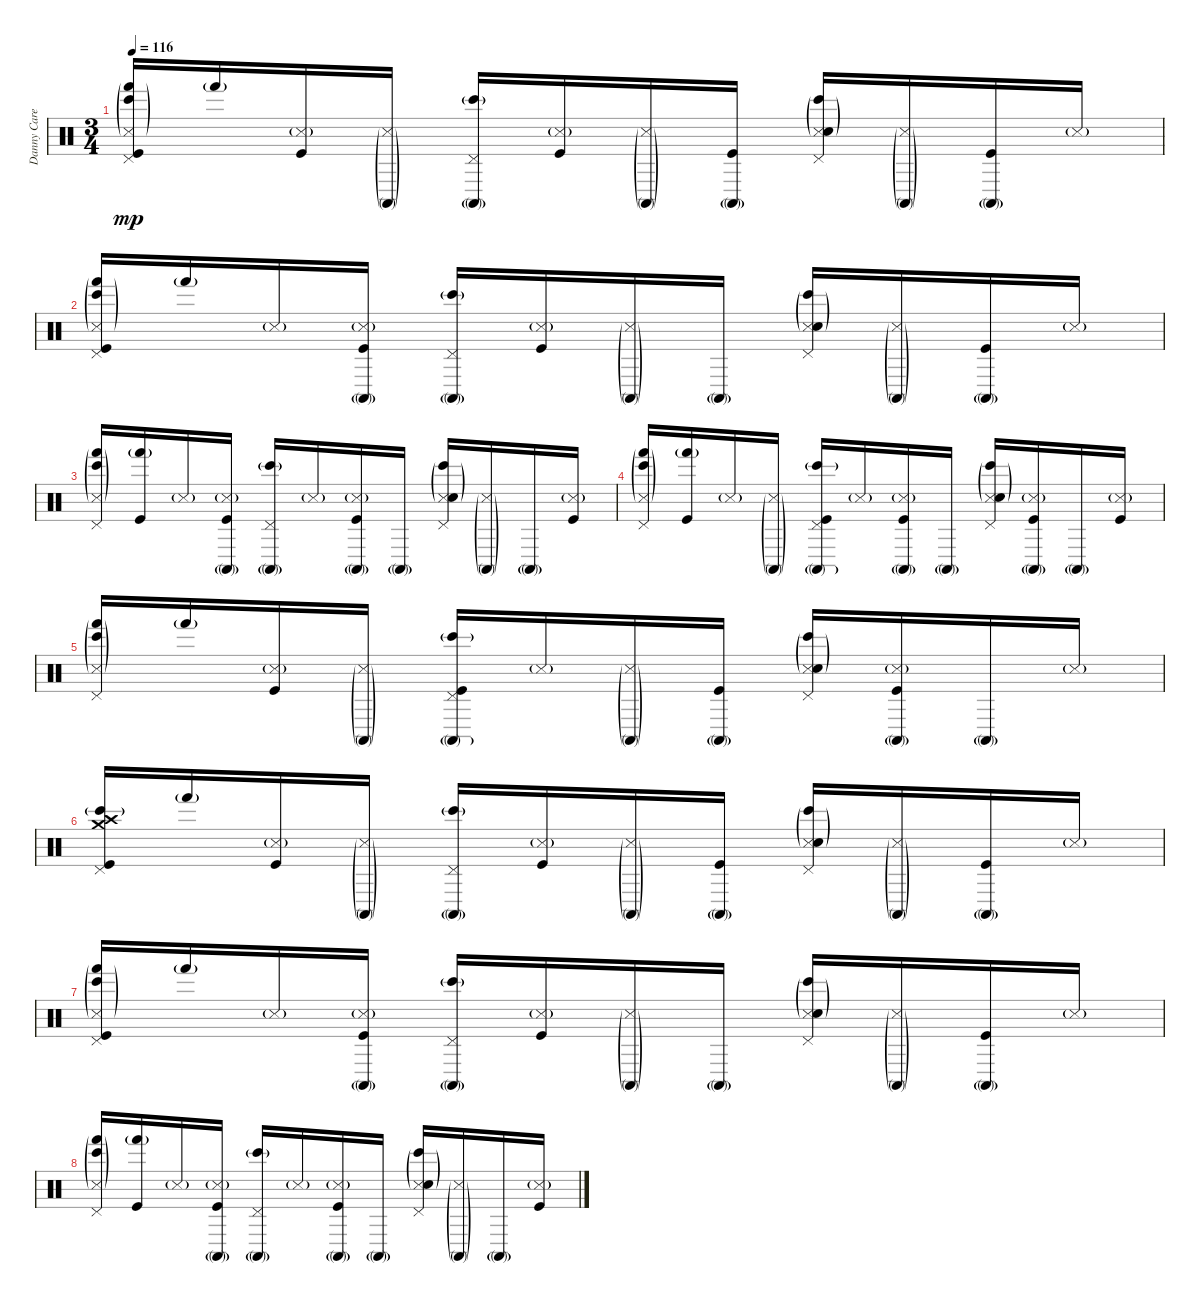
\track ("Danny Carey (drum)" "Danny Care") {instrument percussion}
\staff {score}
\articulation defaults
\ts (3 4)
\tempo 116
\clef neutral
\ks c
("Hand (hit)"{g} "Pedal Hi-Hat (hit)" "Snare (side stick) 3"{g} "Bongo High (hit)"{g} "Kick (hit)").16{dy mp} "Hand (hit)"{g}.16 ("Snare (side stick) 3"{g} "Kick (hit)").16 ("Conga high (mute)"{g} "Snare (side stick) 3"{g}).16 ("Conga high (mute)"{g} "Pedal Hi-Hat (hit)" "Bongo High (hit)"{g}).16 ("Snare (side stick) 3"{g} "Kick (hit)").16 ("Conga high (mute)"{g} "Snare (side stick) 3"{g}).16 ("Conga high (mute)"{g} "Kick (hit)").16 ("Pedal Hi-Hat (hit)" "Snare (side stick) 3"{g} "Snare (hit) 2" "Bongo High (hit)"{g}).16 ("Conga high (mute)"{g} "Snare (side stick) 3"{g}).16 ("Conga high (mute)"{g} "Kick (hit)").16 "Snare (side stick) 3"{g}.16 |
("Hand (hit)"{g} "Pedal Hi-Hat (hit)" "Snare (side stick) 3"{g} "Bongo High (hit)"{g} "Kick (hit)").16 "Hand (hit)"{g}.16 "Snare (side stick) 3"{g}.16 ("Conga high (mute)"{g} "Snare (side stick) 3"{g} "Kick (hit)").16 ("Conga high (mute)"{g} "Pedal Hi-Hat (hit)" "Bongo High (hit)"{g}).16 ("Snare (side stick) 3"{g} "Kick (hit)").16 ("Conga high (mute)"{g} "Snare (side stick) 3"{g}).16 "Conga high (mute)"{g}.16 ("Pedal Hi-Hat (hit)" "Snare (side stick) 3"{g} "Snare (hit) 2" "Bongo High (hit)"{g}).16 ("Conga high (mute)"{g} "Snare (side stick) 3"{g}).16 ("Conga high (mute)"{g} "Kick (hit)").16 "Snare (side stick) 3"{g}.16 |
("Hand (hit)"{g} "Pedal Hi-Hat (hit)" "Snare (side stick) 3"{g} "Bongo High (hit)"{g}).16 ("Hand (hit)"{g} "Kick (hit)").16 "Snare (side stick) 3"{g}.16 ("Conga high (mute)"{g} "Snare (side stick) 3"{g} "Kick (hit)").16 ("Conga high (mute)"{g} "Pedal Hi-Hat (hit)" "Bongo High (hit)"{g}).16 "Snare (side stick) 3"{g}.16 ("Conga high (mute)"{g} "Snare (side stick) 3"{g} "Kick (hit)").16 "Conga high (mute)"{g}.16 ("Pedal Hi-Hat (hit)" "Snare (side stick) 3"{g} "Snare (hit) 2" "Bongo High (hit)"{g}).16 ("Conga high (mute)"{g} "Snare (side stick) 3"{g}).16 "Conga high (mute)"{g}.16 ("Snare (side stick) 3"{g} "Kick (hit)").16 |
("Hand (hit)"{g} "Pedal Hi-Hat (hit)" "Snare (side stick) 3"{g} "Bongo High (hit)"{g}).16 ("Hand (hit)"{g} "Kick (hit)").16 "Snare (side stick) 3"{g}.16 ("Conga high (mute)"{g} "Snare (side stick) 3"{g}).16 ("Conga high (mute)"{g} "Pedal Hi-Hat (hit)" "Bongo High (hit)"{g} "Kick (hit)").16 "Snare (side stick) 3"{g}.16 ("Conga high (mute)"{g} "Snare (side stick) 3"{g} "Kick (hit)").16 "Conga high (mute)"{g}.16 ("Pedal Hi-Hat (hit)" "Snare (side stick) 3"{g} "Snare (hit) 2" "Bongo High (hit)"{g}).16 ("Conga high (mute)"{g} "Snare (side stick) 3"{g} "Kick (hit)").16 "Conga high (mute)"{g}.16 ("Snare (side stick) 3"{g} "Kick (hit)").16 |
("Hand (hit)"{g} "Pedal Hi-Hat (hit)" "Snare (side stick) 3"{g} "Bongo High (hit)"{g}).16 "Hand (hit)"{g}.16 ("Snare (side stick) 3"{g} "Kick (hit)").16 ("Conga high (mute)"{g} "Snare (side stick) 3"{g}).16 ("Conga high (mute)"{g} "Pedal Hi-Hat (hit)" "Bongo High (hit)"{g} "Kick (hit)").16 "Snare (side stick) 3"{g}.16 ("Conga high (mute)"{g} "Snare (side stick) 3"{g}).16 ("Conga high (mute)"{g} "Kick (hit)").16 ("Pedal Hi-Hat (hit)" "Snare (side stick) 3"{g} "Snare (hit) 2" "Bongo High (hit)"{g}).16 ("Conga high (mute)"{g} "Snare (side stick) 3"{g} "Kick (hit)").16 "Conga high (mute)"{g}.16 "Snare (side stick) 3"{g}.16 |
("Crash medium (hit)" "Pedal Hi-Hat (hit)" "Crash high (hit)" "Bongo High (hit)"{g} "Kick (hit)").16 "Hand (hit)"{g}.16 ("Snare (side stick) 3"{g} "Kick (hit)").16 ("Conga high (mute)"{g} "Snare (side stick) 3"{g}).16 ("Conga high (mute)"{g} "Pedal Hi-Hat (hit)" "Bongo High (hit)"{g}).16 ("Snare (side stick) 3"{g} "Kick (hit)").16 ("Conga high (mute)"{g} "Snare (side stick) 3"{g}).16 ("Conga high (mute)"{g} "Kick (hit)").16 ("Pedal Hi-Hat (hit)" "Snare (side stick) 3"{g} "Snare (hit) 2" "Bongo High (hit)"{g}).16 ("Conga high (mute)"{g} "Snare (side stick) 3"{g}).16 ("Conga high (mute)"{g} "Kick (hit)").16 "Snare (side stick) 3"{g}.16 |
("Hand (hit)"{g} "Pedal Hi-Hat (hit)" "Snare (side stick) 3"{g} "Bongo High (hit)"{g} "Kick (hit)").16 "Hand (hit)"{g}.16 "Snare (side stick) 3"{g}.16 ("Conga high (mute)"{g} "Snare (side stick) 3"{g} "Kick (hit)").16 ("Conga high (mute)"{g} "Pedal Hi-Hat (hit)" "Bongo High (hit)"{g}).16 ("Snare (side stick) 3"{g} "Kick (hit)").16 ("Conga high (mute)"{g} "Snare (side stick) 3"{g}).16 "Conga high (mute)"{g}.16 ("Pedal Hi-Hat (hit)" "Snare (side stick) 3"{g} "Snare (hit) 2" "Bongo High (hit)"{g}).16 ("Conga high (mute)"{g} "Snare (side stick) 3"{g}).16 ("Conga high (mute)"{g} "Kick (hit)").16 "Snare (side stick) 3"{g}.16 |
("Hand (hit)"{g} "Pedal Hi-Hat (hit)" "Snare (side stick) 3"{g} "Bongo High (hit)"{g}).16 ("Hand (hit)"{g} "Kick (hit)").16 "Snare (side stick) 3"{g}.16 ("Conga high (mute)"{g} "Snare (side stick) 3"{g} "Kick (hit)").16 ("Conga high (mute)"{g} "Pedal Hi-Hat (hit)" "Bongo High (hit)"{g}).16 "Snare (side stick) 3"{g}.16 ("Conga high (mute)"{g} "Snare (side stick) 3"{g} "Kick (hit)").16 "Conga high (mute)"{g}.16 ("Pedal Hi-Hat (hit)" "Snare (side stick) 3"{g} "Snare (hit) 2" "Bongo High (hit)"{g}).16 ("Conga high (mute)"{g} "Snare (side stick) 3"{g}).16 "Conga high (mute)"{g}.16 ("Snare (side stick) 3"{g} "Kick (hit)").16
